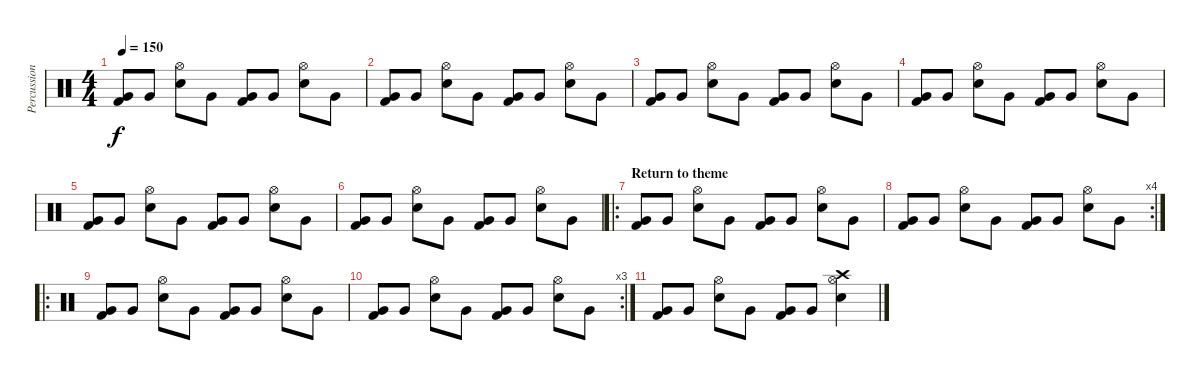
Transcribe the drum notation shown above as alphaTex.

\track ("Percussion" "Percussion") {instrument percussion}
\staff {score}
\articulation defaults
\ts (4 4)
\tempo 150
\clef neutral
\ks c
("Very Low Tom (hit)" "Kick (hit) 2").8{dy f} "Very Low Tom (hit)".8 ("Hi-Hat (open)" "Snare (hit) 2").8 "Very Low Tom (hit)".8 ("Very Low Tom (hit)" "Kick (hit) 2").8 "Very Low Tom (hit)".8 ("Hi-Hat (open)" "Snare (hit) 2").8 "Very Low Tom (hit)".8 |
("Very Low Tom (hit)" "Kick (hit) 2").8 "Very Low Tom (hit)".8 ("Hi-Hat (open)" "Snare (hit) 2").8 "Very Low Tom (hit)".8 ("Very Low Tom (hit)" "Kick (hit) 2").8 "Very Low Tom (hit)".8 ("Hi-Hat (open)" "Snare (hit) 2").8 "Very Low Tom (hit)".8 |
("Very Low Tom (hit)" "Kick (hit) 2").8 "Very Low Tom (hit)".8 ("Hi-Hat (open)" "Snare (hit) 2").8 "Very Low Tom (hit)".8 ("Very Low Tom (hit)" "Kick (hit) 2").8 "Very Low Tom (hit)".8 ("Hi-Hat (open)" "Snare (hit) 2").8 "Very Low Tom (hit)".8 |
("Very Low Tom (hit)" "Kick (hit) 2").8 "Very Low Tom (hit)".8 ("Hi-Hat (open)" "Snare (hit) 2").8 "Very Low Tom (hit)".8 ("Very Low Tom (hit)" "Kick (hit) 2").8 "Very Low Tom (hit)".8 ("Hi-Hat (open)" "Snare (hit) 2").8 "Very Low Tom (hit)".8 |
("Very Low Tom (hit)" "Kick (hit) 2").8 "Very Low Tom (hit)".8 ("Hi-Hat (open)" "Snare (hit) 2").8 "Very Low Tom (hit)".8 ("Very Low Tom (hit)" "Kick (hit) 2").8 "Very Low Tom (hit)".8 ("Hi-Hat (open)" "Snare (hit) 2").8 "Very Low Tom (hit)".8 |
("Very Low Tom (hit)" "Kick (hit) 2").8 "Very Low Tom (hit)".8 ("Hi-Hat (open)" "Snare (hit) 2").8 "Very Low Tom (hit)".8 ("Very Low Tom (hit)" "Kick (hit) 2").8 "Very Low Tom (hit)".8 ("Hi-Hat (open)" "Snare (hit) 2").8 "Very Low Tom (hit)".8 |
\ro
\section ("" "Return to theme")
("Very Low Tom (hit)" "Kick (hit) 2").8 "Very Low Tom (hit)".8 ("Hi-Hat (open)" "Snare (hit) 2").8 "Very Low Tom (hit)".8 ("Very Low Tom (hit)" "Kick (hit) 2").8 "Very Low Tom (hit)".8 ("Hi-Hat (open)" "Snare (hit) 2").8 "Very Low Tom (hit)".8 |
\rc 4
("Very Low Tom (hit)" "Kick (hit) 2").8 "Very Low Tom (hit)".8 ("Hi-Hat (open)" "Snare (hit) 2").8 "Very Low Tom (hit)".8 ("Very Low Tom (hit)" "Kick (hit) 2").8 "Very Low Tom (hit)".8 ("Hi-Hat (open)" "Snare (hit) 2").8 "Very Low Tom (hit)".8 |
\ro
("Very Low Tom (hit)" "Kick (hit) 2").8 "Very Low Tom (hit)".8 ("Hi-Hat (open)" "Snare (hit) 2").8 "Very Low Tom (hit)".8 ("Very Low Tom (hit)" "Kick (hit) 2").8 "Very Low Tom (hit)".8 ("Hi-Hat (open)" "Snare (hit) 2").8 "Very Low Tom (hit)".8 |
\rc 3
("Very Low Tom (hit)" "Kick (hit) 2").8 "Very Low Tom (hit)".8 ("Hi-Hat (open)" "Snare (hit) 2").8 "Very Low Tom (hit)".8 ("Very Low Tom (hit)" "Kick (hit) 2").8 "Very Low Tom (hit)".8 ("Hi-Hat (open)" "Snare (hit) 2").8 "Very Low Tom (hit)".8 |
("Very Low Tom (hit)" "Kick (hit) 2").8 "Very Low Tom (hit)".8 ("Hi-Hat (open)" "Snare (hit) 2").8 "Very Low Tom (hit)".8 ("Very Low Tom (hit)" "Kick (hit) 2").8 "Very Low Tom (hit)".8 ("Crash high (hit)" "Hi-Hat (open)" "Snare (hit) 2").4
